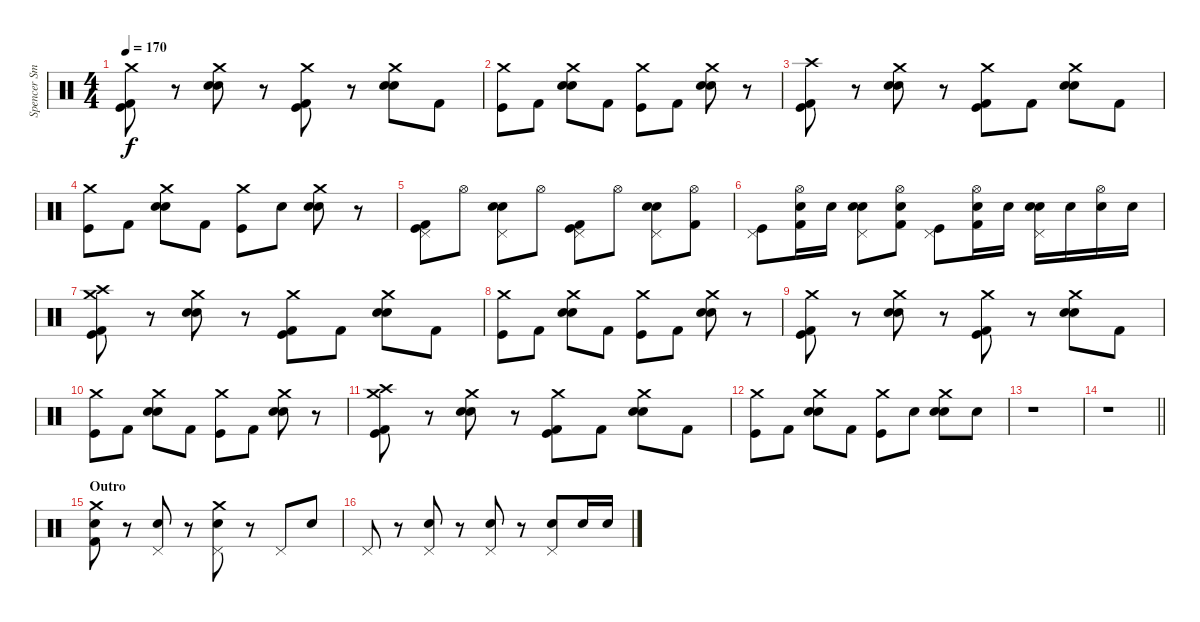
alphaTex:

\track ("Spencer Smith (Drums)" "Spencer Sm") {instrument percussion}
\staff {score}
\articulation defaults
\ts (4 4)
\tempo 170
\clef neutral
\ks c
("Crash medium (hit)" "Kick (hit) 2" "Kick (hit)").8{dy f} r.8 ("Crash medium (hit)" "Electric Snare (hit)" "Hand Clap (hit)").8 r.8 ("Crash medium (hit)" "Kick (hit) 2" "Kick (hit)").8 r.8 ("Crash medium (hit)" "Electric Snare (hit)" "Hand Clap (hit)").8 "Kick (hit) 2".8 |
("Crash medium (hit)" "Kick (hit)").8 "Kick (hit) 2".8 ("Crash medium (hit)" "Electric Snare (hit)" "Hand Clap (hit)").8 "Kick (hit) 2".8 ("Crash medium (hit)" "Kick (hit)").8 "Kick (hit) 2".8 ("Crash medium (hit)" "Electric Snare (hit)" "Hand Clap (hit)").8 r.8 |
("Crash high (hit)" "Kick (hit) 2" "Kick (hit)").8 r.8 ("Crash medium (hit)" "Electric Snare (hit)" "Hand Clap (hit)").8 r.8 ("Crash medium (hit)" "Kick (hit) 2" "Kick (hit)").8 "Kick (hit) 2".8 ("Crash medium (hit)" "Electric Snare (hit)" "Hand Clap (hit)").8 "Kick (hit) 2".8 |
("Crash medium (hit)" "Kick (hit)").8 "Kick (hit) 2".8 ("Crash medium (hit)" "Electric Snare (hit)" "Hand Clap (hit)").8 "Kick (hit) 2".8 ("Crash medium (hit)" "Kick (hit)").8 "Electric Snare (hit)".8 ("Crash medium (hit)" "Electric Snare (hit)" "Hand Clap (hit)").8 r.8 |
("Pedal Hi-Hat (hit)" "Kick (hit) 2" "Kick (hit)").8 "Hi-Hat (open)".8 ("Pedal Hi-Hat (hit)" "Electric Snare (hit)" "Hand Clap (hit)").8 "Hi-Hat (open)".8 ("Pedal Hi-Hat (hit)" "Kick (hit) 2" "Kick (hit)").8 "Hi-Hat (open)".8 ("Pedal Hi-Hat (hit)" "Electric Snare (hit)" "Hand Clap (hit)").8 ("Hi-Hat (open)" "Kick (hit) 2").8 |
("Pedal Hi-Hat (hit)" "Kick (hit)").8 ("Hi-Hat (open)" "Electric Snare (hit)" "Kick (hit) 2").16 "Electric Snare (hit)".16 ("Pedal Hi-Hat (hit)" "Electric Snare (hit)" "Hand Clap (hit)").8 ("Hi-Hat (open)" "Electric Snare (hit)" "Kick (hit) 2").8 ("Pedal Hi-Hat (hit)" "Kick (hit)").8 ("Hi-Hat (open)" "Electric Snare (hit)" "Kick (hit) 2").16 "Electric Snare (hit)".16 ("Pedal Hi-Hat (hit)" "Electric Snare (hit)" "Hand Clap (hit)").16 "Electric Snare (hit)".16 ("Hi-Hat (open)" "Electric Snare (hit)").16 "Electric Snare (hit)".16 |
("Crash medium (hit)" "Crash high (hit)" "Kick (hit) 2" "Kick (hit)").8 r.8 ("Crash medium (hit)" "Electric Snare (hit)" "Hand Clap (hit)").8 r.8 ("Crash medium (hit)" "Kick (hit) 2" "Kick (hit)").8 "Kick (hit) 2".8 ("Crash medium (hit)" "Electric Snare (hit)" "Hand Clap (hit)").8 "Kick (hit) 2".8 |
("Crash medium (hit)" "Kick (hit)").8 "Kick (hit) 2".8 ("Crash medium (hit)" "Electric Snare (hit)" "Hand Clap (hit)").8 "Kick (hit) 2".8 ("Crash medium (hit)" "Kick (hit)").8 "Kick (hit) 2".8 ("Crash medium (hit)" "Electric Snare (hit)" "Hand Clap (hit)").8 r.8 |
("Crash medium (hit)" "Kick (hit) 2" "Kick (hit)").8 r.8 ("Crash medium (hit)" "Electric Snare (hit)" "Hand Clap (hit)").8 r.8 ("Crash medium (hit)" "Kick (hit) 2" "Kick (hit)").8 r.8 ("Crash medium (hit)" "Electric Snare (hit)" "Hand Clap (hit)").8 "Kick (hit) 2".8 |
("Crash medium (hit)" "Kick (hit)").8 "Kick (hit) 2".8 ("Crash medium (hit)" "Electric Snare (hit)" "Hand Clap (hit)").8 "Kick (hit) 2".8 ("Crash medium (hit)" "Kick (hit)").8 "Kick (hit) 2".8 ("Crash medium (hit)" "Electric Snare (hit)" "Hand Clap (hit)").8 r.8 |
("Crash high (hit)" "Crash medium (hit)" "Kick (hit) 2" "Kick (hit)").8 r.8 ("Crash medium (hit)" "Electric Snare (hit)" "Hand Clap (hit)").8 r.8 ("Crash medium (hit)" "Kick (hit) 2" "Kick (hit)").8 "Kick (hit) 2".8 ("Crash medium (hit)" "Electric Snare (hit)" "Hand Clap (hit)").8 "Kick (hit) 2".8 |
("Crash medium (hit)" "Kick (hit)").8 "Kick (hit) 2".8 ("Crash medium (hit)" "Electric Snare (hit)" "Hand Clap (hit)").8 "Kick (hit) 2".8 ("Crash medium (hit)" "Kick (hit)").8 "Electric Snare (hit)".8 ("Crash medium (hit)" "Electric Snare (hit)" "Hand Clap (hit)").8 "Electric Snare (hit)".8 |
r.1 |
\barLineRight lightlight
r.1 |
\section ("" "Outro")
("Crash medium (hit)" "Electric Snare (hit)" "Kick (hit) 2").8 r.8 ("Electric Snare (hit)" "Pedal Hi-Hat (hit)").8 r.8 ("Crash medium (hit)" "Electric Snare (hit)" "Pedal Hi-Hat (hit)").8 r.8 "Pedal Hi-Hat (hit)".8 "Electric Snare (hit)".8 |
"Pedal Hi-Hat (hit)".8 r.8 ("Electric Snare (hit)" "Pedal Hi-Hat (hit)").8 r.8 ("Electric Snare (hit)" "Pedal Hi-Hat (hit)").8 r.8 ("Electric Snare (hit)" "Pedal Hi-Hat (hit)").8 "Electric Snare (hit)".16 "Electric Snare (hit)".16
